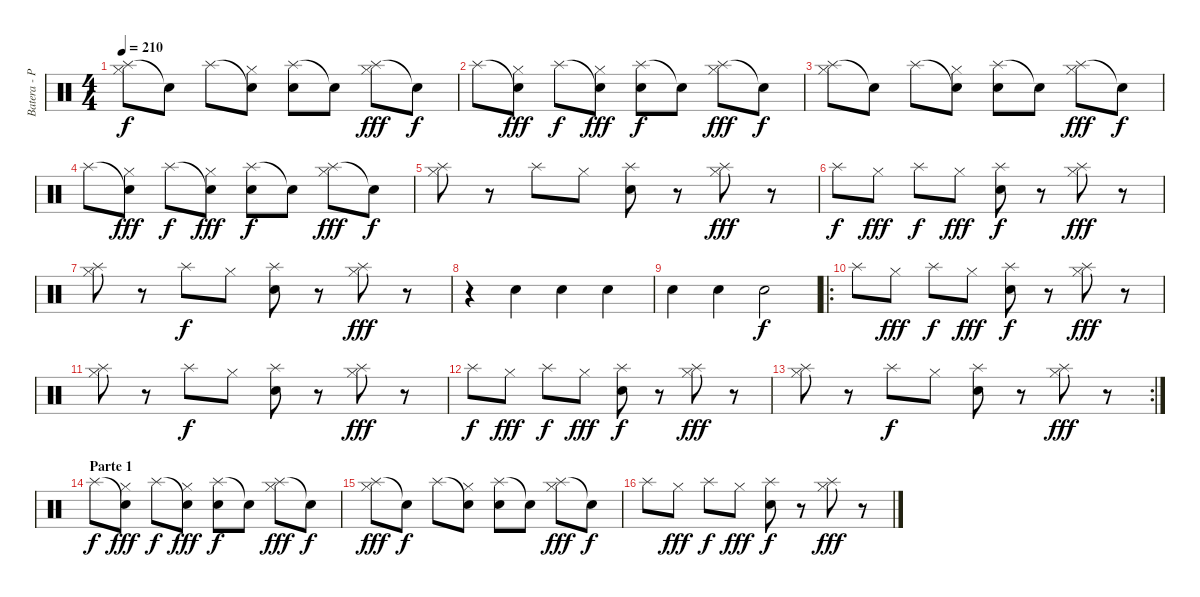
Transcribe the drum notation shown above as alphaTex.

\track ("Batera - Pelado" "Batera - P") {instrument percussion}
\staff {score}
\articulation defaults
\ts (4 4)
\tempo 210
\clef neutral
\ks c
("Splash (hit)" "Hi-Hat (closed)").8{dy f} "Snare (hit)"{t}.8 "Splash (hit)".8 ("Snare (hit)"{t} "Hi-Hat (closed)").8 ("Splash (hit)" "Electric Snare (hit)").8 "Snare (hit)"{t}.8 ("Splash (hit)" "Hi-Hat (closed)").8{dy fff} "Snare (hit)"{t}.8{dy f} |
"Splash (hit)".8 ("Snare (hit)"{t} "Hi-Hat (closed)").8{dy fff} "Splash (hit)".8{dy f} ("Snare (hit)"{t} "Hi-Hat (closed)").8{dy fff} ("Splash (hit)" "Electric Snare (hit)").8{dy f} "Snare (hit)"{t}.8 ("Splash (hit)" "Hi-Hat (closed)").8{dy fff} "Snare (hit)"{t}.8{dy f} |
("Splash (hit)" "Hi-Hat (closed)").8 "Snare (hit)"{t}.8 "Splash (hit)".8 ("Snare (hit)"{t} "Hi-Hat (closed)").8 ("Splash (hit)" "Electric Snare (hit)").8 "Snare (hit)"{t}.8 ("Splash (hit)" "Hi-Hat (closed)").8{dy fff} "Snare (hit)"{t}.8{dy f} |
"Splash (hit)".8 ("Snare (hit)"{t} "Hi-Hat (closed)").8{dy fff} "Splash (hit)".8{dy f} ("Snare (hit)"{t} "Hi-Hat (closed)").8{dy fff} ("Splash (hit)" "Electric Snare (hit)").8{dy f} "Snare (hit)"{t}.8 ("Splash (hit)" "Hi-Hat (closed)").8{dy fff} "Snare (hit)"{t}.8{dy f} |
("Splash (hit)" "Hi-Hat (closed)").8 r.8 "Splash (hit)".8 "Hi-Hat (closed)".8 ("Splash (hit)" "Electric Snare (hit)").8 r.8 ("Splash (hit)" "Hi-Hat (closed)").8{dy fff} r.8 |
"Splash (hit)".8{dy f} "Hi-Hat (closed)".8{dy fff} "Splash (hit)".8{dy f} "Hi-Hat (closed)".8{dy fff} ("Splash (hit)" "Electric Snare (hit)").8{dy f} r.8 ("Splash (hit)" "Hi-Hat (closed)").8{dy fff} r.8 |
("Splash (hit)" "Hi-Hat (closed)").8 r.8 "Splash (hit)".8{dy f} "Hi-Hat (closed)".8 ("Splash (hit)" "Electric Snare (hit)").8 r.8 ("Splash (hit)" "Hi-Hat (closed)").8{dy fff} r.8 |
r.4 "Electric Snare (hit)".4 "Electric Snare (hit)".4 "Electric Snare (hit)".4 |
"Electric Snare (hit)".4 "Electric Snare (hit)".4 "Electric Snare (hit)".2{dy f} |
\ro "Splash (hit)".8 "Hi-Hat (closed)".8{dy fff} "Splash (hit)".8{dy f} "Hi-Hat (closed)".8{dy fff}
("Splash (hit)" "Electric Snare (hit)").8{dy f} r.8 ("Splash (hit)" "Hi-Hat (closed)").8{dy fff} r.8 |
("Splash (hit)" "Hi-Hat (closed)").8 r.8 "Splash (hit)".8{dy f} "Hi-Hat (closed)".8 ("Splash (hit)" "Electric Snare (hit)").8 r.8 ("Splash (hit)" "Hi-Hat (closed)").8{dy fff} r.8 |
"Splash (hit)".8{dy f} "Hi-Hat (closed)".8{dy fff} "Splash (hit)".8{dy f} "Hi-Hat (closed)".8{dy fff} ("Splash (hit)" "Electric Snare (hit)").8{dy f} r.8 ("Splash (hit)" "Hi-Hat (closed)").8{dy fff} r.8 |
\rc 2
("Splash (hit)" "Hi-Hat (closed)").8 r.8 "Splash (hit)".8{dy f} "Hi-Hat (closed)".8 ("Splash (hit)" "Electric Snare (hit)").8 r.8 ("Splash (hit)" "Hi-Hat (closed)").8{dy fff} r.8 |
\section ("" "Parte 1")
"Splash (hit)".8{dy f} ("Snare (hit)"{t} "Hi-Hat (closed)").8{dy fff} "Splash (hit)".8{dy f} ("Snare (hit)"{t} "Hi-Hat (closed)").8{dy fff} ("Splash (hit)" "Electric Snare (hit)").8{dy f} "Snare (hit)"{t}.8 ("Splash (hit)" "Hi-Hat (closed)").8{dy fff} "Snare (hit)"{t}.8{dy f} |
("Splash (hit)" "Hi-Hat (closed)").8{dy fff} "Snare (hit)"{t}.8{dy f} "Splash (hit)".8 ("Snare (hit)"{t} "Hi-Hat (closed)").8 ("Splash (hit)" "Electric Snare (hit)").8 "Snare (hit)"{t}.8 ("Splash (hit)" "Hi-Hat (closed)").8{dy fff} "Snare (hit)"{t}.8{dy f} |
"Splash (hit)".8 "Hi-Hat (closed)".8{dy fff} "Splash (hit)".8{dy f} "Hi-Hat (closed)".8{dy fff} ("Splash (hit)" "Electric Snare (hit)").8{dy f} r.8 ("Splash (hit)" "Hi-Hat (closed)").8{dy fff} r.8
